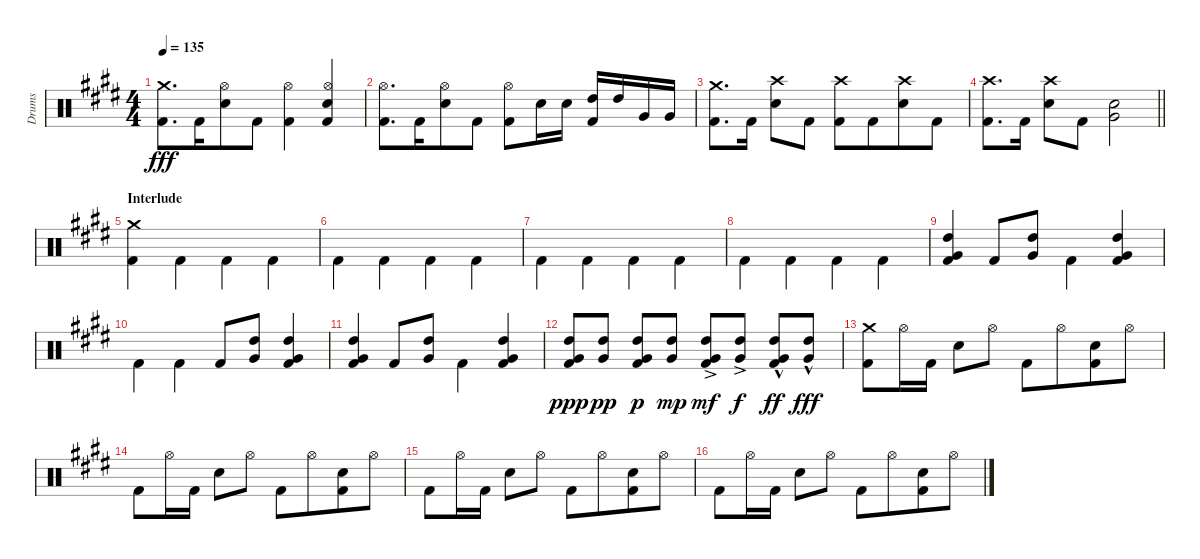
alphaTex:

\track ("Drums" "Drums") {instrument percussion}
\staff {score}
\articulation defaults
\ts (4 4)
\tempo 135
\clef neutral
\ks c#minor
("Kick (hit) 2" "Crash medium (hit)").8{d dy fff} "Kick (hit) 2".16{beam merge} ("Hi-Hat (open)" "Snare (hit) 2").8 "Kick (hit) 2".8 ("Kick (hit) 2" "Hi-Hat (open)").4{beam Down} ("Kick (hit) 2" "Hi-Hat (open)" "Snare (hit) 2").4 |
("Kick (hit) 2" "Hi-Hat (open)").8{d} "Kick (hit) 2".16{beam merge} ("Hi-Hat (open)" "Snare (hit) 2").8 "Kick (hit) 2".8 ("Kick (hit) 2" "Hi-Hat (open)").8 "Snare (hit) 2".16 "Snare (hit) 2".16 ("Kick (hit) 2" "High Tom (hit)").16 "High Tom (hit)".16 "Very Low Tom (hit)".16 "Very Low Tom (hit)".16 |
("Kick (hit) 2" "Crash medium (hit)").8{d} "Kick (hit) 2".16{beam split} ("Crash high (hit)" "Snare (hit) 2").8 "Kick (hit) 2".8{beam split} ("Kick (hit) 2" "Crash high (hit)").8 "Kick (hit) 2".8{beam merge} ("Crash high (hit)" "Snare (hit) 2").8 "Kick (hit) 2".8 |
\barLineRight lightlight
("Kick (hit) 2" "Crash high (hit)").8{d} "Kick (hit) 2".16{beam split} ("Crash high (hit)" "Snare (hit) 2").8 "Kick (hit) 2".8 ("Very Low Tom (hit)" "Snare (hit) 2").2{beam Down} |
\section ("" "Interlude")
("Kick (hit) 2" "Crash medium (hit)").4 "Kick (hit) 2".4{beam Down} "Kick (hit) 2".4{beam Down} "Kick (hit) 2".4{beam Down} |
"Kick (hit) 2".4{beam Down} "Kick (hit) 2".4{beam Down} "Kick (hit) 2".4{beam Down} "Kick (hit) 2".4{beam Down} |
"Kick (hit) 2".4{beam Down} "Kick (hit) 2".4{beam Down} "Kick (hit) 2".4{beam Down} "Kick (hit) 2".4{beam Down} |
"Kick (hit) 2".4{beam Down} "Kick (hit) 2".4{beam Down} "Kick (hit) 2".4{beam Down} "Kick (hit) 2".4{beam Down} |
("Kick (hit) 2" "High Tom (hit)" "Very Low Tom (hit)").4 "Kick (hit) 2".8 ("High Tom (hit)" "Very Low Tom (hit)").8 "Kick (hit) 2".4{beam Down} ("Kick (hit) 2" "High Tom (hit)" "Very Low Tom (hit)").4 |
"Kick (hit) 2".4{beam Down} "Kick (hit) 2".4{beam Down} "Kick (hit) 2".8 ("High Tom (hit)" "Very Low Tom (hit)").8 ("Kick (hit) 2" "High Tom (hit)" "Very Low Tom (hit)").4 |
("Kick (hit) 2" "High Tom (hit)" "Very Low Tom (hit)").4 "Kick (hit) 2".8 ("High Tom (hit)" "Very Low Tom (hit)").8 "Kick (hit) 2".4{beam Down} ("Kick (hit) 2" "High Tom (hit)" "Very Low Tom (hit)").4 |
("Kick (hit) 2" "High Tom (hit)" "Very Low Tom (hit)").8{dy ppp} ("High Tom (hit)" "Very Low Tom (hit)").8{dy pp} ("Kick (hit) 2" "High Tom (hit)" "Very Low Tom (hit)").8{dy p} ("High Tom (hit)" "Very Low Tom (hit)").8{dy mp} ("Kick (hit) 2" "High Tom (hit)"{ac} "Very Low Tom (hit)"{ac}).8{dy mf} ("High Tom (hit)"{ac} "Very Low Tom (hit)"{ac}).8{dy f} ("Kick (hit) 2" "High Tom (hit)"{hac} "Very Low Tom (hit)"{hac}).8{dy ff} ("High Tom (hit)"{hac} "Very Low Tom (hit)"{hac}).8{dy fff} |
("Kick (hit) 2" "Crash medium (hit)").8 "Hi-Hat (open)".16 "Kick (hit) 2".16 "Snare (hit) 2".8 "Hi-Hat (open)".8 "Kick (hit) 2".8 "Hi-Hat (open)".8{beam merge} ("Kick (hit) 2" "Snare (hit) 2").8 "Hi-Hat (open)".8 |
"Kick (hit) 2".8 "Hi-Hat (open)".16 "Kick (hit) 2".16 "Snare (hit) 2".8 "Hi-Hat (open)".8 "Kick (hit) 2".8 "Hi-Hat (open)".8{beam merge} ("Kick (hit) 2" "Snare (hit) 2").8 "Hi-Hat (open)".8 |
"Kick (hit) 2".8 "Hi-Hat (open)".16 "Kick (hit) 2".16 "Snare (hit) 2".8 "Hi-Hat (open)".8 "Kick (hit) 2".8 "Hi-Hat (open)".8{beam merge} ("Kick (hit) 2" "Snare (hit) 2").8 "Hi-Hat (open)".8 |
"Kick (hit) 2".8 "Hi-Hat (open)".16 "Kick (hit) 2".16 "Snare (hit) 2".8 "Hi-Hat (open)".8 "Kick (hit) 2".8 "Hi-Hat (open)".8{beam merge} ("Kick (hit) 2" "Snare (hit) 2").8 "Hi-Hat (open)".8
